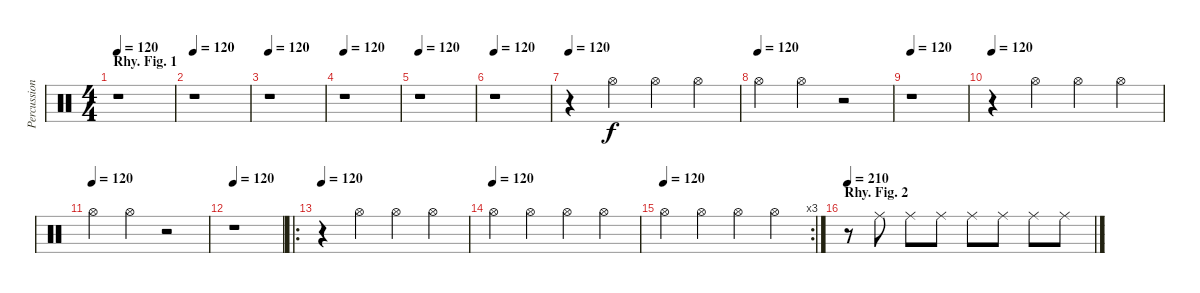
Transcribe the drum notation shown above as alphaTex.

\track ("Percussion" "Percussion") {instrument percussion}
\staff {score}
\articulation defaults
\ts (4 4)
\section ("" "Rhy. Fig. 1")
\tempo 120
\clef neutral
\ks c
r.1{dy f} |
\tempo 120
r.1 |
\tempo 120
r.1 |
\tempo 120
r.1 |
\tempo 120
r.1 |
\tempo 120
r.1 |
\tempo 120
r.4 "Hi-Hat (open)".4 "Hi-Hat (open)".4 "Hi-Hat (open)".4 |
\tempo (120)
"Hi-Hat (open)".4 "Hi-Hat (open)".4 r.2 |
\tempo 120
r.1 |
\tempo 120
r.4 "Hi-Hat (open)".4 "Hi-Hat (open)".4 "Hi-Hat (open)".4 |
\tempo (120)
"Hi-Hat (open)".4 "Hi-Hat (open)".4 r.2 |
\tempo 120
r.1 |
\ro
\tempo 120
r.4 "Hi-Hat (open)".4 "Hi-Hat (open)".4 "Hi-Hat (open)".4 |
\tempo (120)
"Hi-Hat (open)".4 "Hi-Hat (open)".4 "Hi-Hat (open)".4 "Hi-Hat (open)".4 |
\rc 3
\tempo (120)
"Hi-Hat (open)".4 "Hi-Hat (open)".4 "Hi-Hat (open)".4 "Hi-Hat (open)".4 |
\section ("" "Rhy. Fig. 2")
\tempo 210
r.8 "Ride (middle)".8 "Ride (middle)".8 "Ride (middle)".8 "Ride (middle)".8 "Ride (middle)".8 "Ride (middle)".8 "Ride (middle)".8
